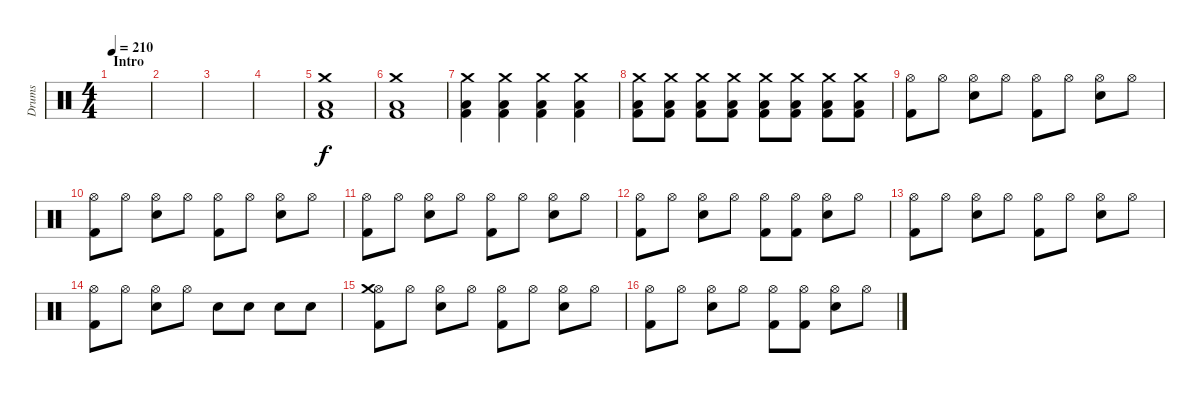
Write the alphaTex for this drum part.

\track ("Drums" "Drums") {instrument percussion}
\staff {score}
\articulation defaults
\ts (4 4)
\section ("" "Intro")
\tempo 210
\clef neutral
\ks c
|
|
|
|
("Crash medium (hit)" "Low Floor Tom (hit)" "Kick (hit) 2").1 |
("Crash medium (hit)" "Low Floor Tom (hit)" "Kick (hit) 2").1 |
("Crash medium (hit)" "Low Floor Tom (hit)" "Kick (hit) 2").4 ("Crash medium (hit)" "Low Floor Tom (hit)" "Kick (hit) 2").4 ("Crash medium (hit)" "Low Floor Tom (hit)" "Kick (hit) 2").4 ("Crash medium (hit)" "Low Floor Tom (hit)" "Kick (hit) 2").4 |
("Crash medium (hit)" "Low Floor Tom (hit)" "Kick (hit) 2").8 ("Crash medium (hit)" "Low Floor Tom (hit)" "Kick (hit) 2").8 ("Crash medium (hit)" "Low Floor Tom (hit)" "Kick (hit) 2").8 ("Crash medium (hit)" "Low Floor Tom (hit)" "Kick (hit) 2").8 ("Crash medium (hit)" "Low Floor Tom (hit)" "Kick (hit) 2").8 ("Crash medium (hit)" "Low Floor Tom (hit)" "Kick (hit) 2").8 ("Crash medium (hit)" "Low Floor Tom (hit)" "Kick (hit) 2").8 ("Crash medium (hit)" "Low Floor Tom (hit)" "Kick (hit) 2").8 |
("Hi-Hat (open)" "Kick (hit) 2").8 "Hi-Hat (open)".8 ("Hi-Hat (open)" "Electric Snare (hit)").8 "Hi-Hat (open)".8 ("Hi-Hat (open)" "Kick (hit) 2").8 "Hi-Hat (open)".8 ("Hi-Hat (open)" "Electric Snare (hit)").8 "Hi-Hat (open)".8 |
("Hi-Hat (open)" "Kick (hit) 2").8 "Hi-Hat (open)".8 ("Hi-Hat (open)" "Electric Snare (hit)").8 "Hi-Hat (open)".8 ("Hi-Hat (open)" "Kick (hit) 2").8 "Hi-Hat (open)".8 ("Hi-Hat (open)" "Electric Snare (hit)").8 "Hi-Hat (open)".8 |
("Hi-Hat (open)" "Kick (hit) 2").8 "Hi-Hat (open)".8 ("Hi-Hat (open)" "Electric Snare (hit)").8 "Hi-Hat (open)".8 ("Hi-Hat (open)" "Kick (hit) 2").8 "Hi-Hat (open)".8 ("Hi-Hat (open)" "Electric Snare (hit)").8 "Hi-Hat (open)".8 |
("Hi-Hat (open)" "Kick (hit) 2").8 "Hi-Hat (open)".8 ("Hi-Hat (open)" "Electric Snare (hit)").8 "Hi-Hat (open)".8 ("Hi-Hat (open)" "Kick (hit) 2").8 ("Hi-Hat (open)" "Kick (hit) 2").8 ("Hi-Hat (open)" "Electric Snare (hit)").8 "Hi-Hat (open)".8 |
("Hi-Hat (open)" "Kick (hit) 2").8 "Hi-Hat (open)".8 ("Hi-Hat (open)" "Electric Snare (hit)").8 "Hi-Hat (open)".8 ("Hi-Hat (open)" "Kick (hit) 2").8 "Hi-Hat (open)".8 ("Hi-Hat (open)" "Electric Snare (hit)").8 "Hi-Hat (open)".8 |
("Hi-Hat (open)" "Kick (hit) 2").8 "Hi-Hat (open)".8 ("Hi-Hat (open)" "Electric Snare (hit)").8 "Hi-Hat (open)".8 "Electric Snare (hit)".8 "Electric Snare (hit)".8 "Electric Snare (hit)".8 "Electric Snare (hit)".8 |
("Hi-Hat (open)" "Crash medium (hit)" "Kick (hit) 2").8 "Hi-Hat (open)".8 ("Hi-Hat (open)" "Electric Snare (hit)").8 "Hi-Hat (open)".8 ("Hi-Hat (open)" "Kick (hit) 2").8 "Hi-Hat (open)".8 ("Hi-Hat (open)" "Electric Snare (hit)").8 "Hi-Hat (open)".8 |
("Hi-Hat (open)" "Kick (hit) 2").8 "Hi-Hat (open)".8 ("Hi-Hat (open)" "Electric Snare (hit)").8 "Hi-Hat (open)".8 ("Hi-Hat (open)" "Kick (hit) 2").8 ("Hi-Hat (open)" "Kick (hit) 2").8 ("Hi-Hat (open)" "Electric Snare (hit)").8 "Hi-Hat (open)".8
